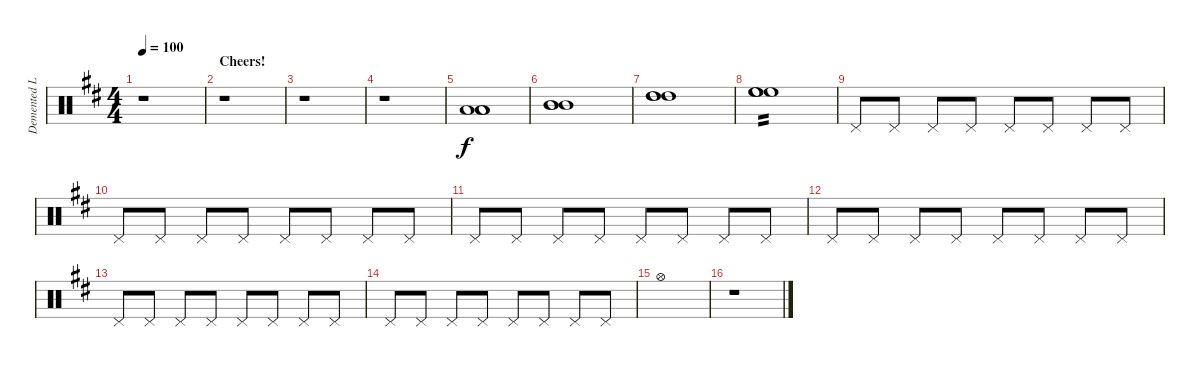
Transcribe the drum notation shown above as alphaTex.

\track ("Demented Leming (Drums)" "Demented L") {instrument percussion}
\staff {score}
\articulation defaults
\ts (4 4)
\tempo 100
\clef neutral
\ks d
r.1{dy f} |
\section ("" "Cheers!")
r.1 |
r.1 |
r.1 |
("Low Tom (hit)" "Low Tom (hit)" "Low Tom (hit)").1 |
("Mid Tom (hit)" "Mid Tom (hit)" "Mid Tom (hit)").1 |
("High Tom (hit)" "High Tom (hit)" "High Tom (hit)").1 |
("High Floor Tom (hit)" "High Floor Tom (hit)" "High Floor Tom (hit)").1{tp 2} |
"Pedal Hi-Hat (hit)".8 "Pedal Hi-Hat (hit)".8 "Pedal Hi-Hat (hit)".8 "Pedal Hi-Hat (hit)".8 "Pedal Hi-Hat (hit)".8 "Pedal Hi-Hat (hit)".8 "Pedal Hi-Hat (hit)".8 "Pedal Hi-Hat (hit)".8 |
"Pedal Hi-Hat (hit)".8 "Pedal Hi-Hat (hit)".8 "Pedal Hi-Hat (hit)".8 "Pedal Hi-Hat (hit)".8 "Pedal Hi-Hat (hit)".8 "Pedal Hi-Hat (hit)".8 "Pedal Hi-Hat (hit)".8 "Pedal Hi-Hat (hit)".8 |
"Pedal Hi-Hat (hit)".8 "Pedal Hi-Hat (hit)".8 "Pedal Hi-Hat (hit)".8 "Pedal Hi-Hat (hit)".8 "Pedal Hi-Hat (hit)".8 "Pedal Hi-Hat (hit)".8 "Pedal Hi-Hat (hit)".8 "Pedal Hi-Hat (hit)".8 |
"Pedal Hi-Hat (hit)".8 "Pedal Hi-Hat (hit)".8 "Pedal Hi-Hat (hit)".8 "Pedal Hi-Hat (hit)".8 "Pedal Hi-Hat (hit)".8 "Pedal Hi-Hat (hit)".8 "Pedal Hi-Hat (hit)".8 "Pedal Hi-Hat (hit)".8 |
"Pedal Hi-Hat (hit)".8 "Pedal Hi-Hat (hit)".8 "Pedal Hi-Hat (hit)".8 "Pedal Hi-Hat (hit)".8 "Pedal Hi-Hat (hit)".8 "Pedal Hi-Hat (hit)".8 "Pedal Hi-Hat (hit)".8 "Pedal Hi-Hat (hit)".8 |
"Pedal Hi-Hat (hit)".8 "Pedal Hi-Hat (hit)".8 "Pedal Hi-Hat (hit)".8 "Pedal Hi-Hat (hit)".8 "Pedal Hi-Hat (hit)".8 "Pedal Hi-Hat (hit)".8 "Pedal Hi-Hat (hit)".8 "Pedal Hi-Hat (hit)".8 |
"Hi-Hat (open)".1 |
r.1
